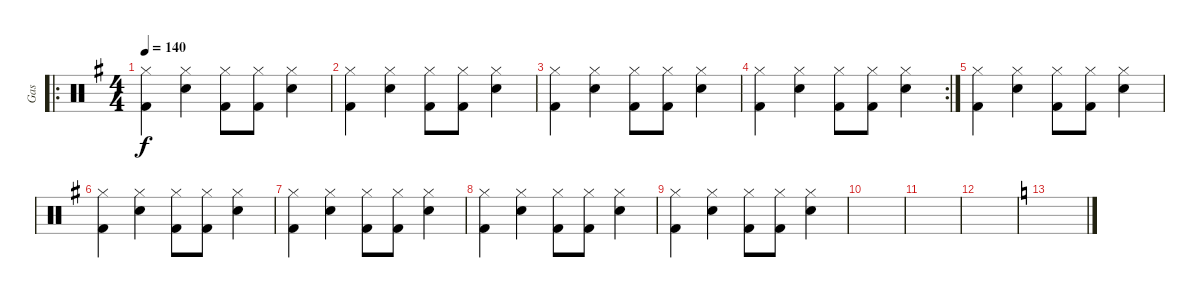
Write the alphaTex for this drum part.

\track ("Gas" "Gas") {instrument percussion}
\staff {score}
\articulation defaults
\ro
\ts (4 4)
\tempo 140
\clef neutral
\ks eminor
("Hi-Hat (closed)" "Kick (hit) 2").4{dy f} ("Hi-Hat (closed)" "Electric Snare (hit)").4 ("Hi-Hat (closed)" "Kick (hit) 2").8 ("Hi-Hat (closed)" "Kick (hit) 2").8 ("Hi-Hat (closed)" "Electric Snare (hit)").4 |
("Hi-Hat (closed)" "Kick (hit) 2").4 ("Hi-Hat (closed)" "Electric Snare (hit)").4 ("Hi-Hat (closed)" "Kick (hit) 2").8 ("Hi-Hat (closed)" "Kick (hit) 2").8 ("Hi-Hat (closed)" "Electric Snare (hit)").4 |
("Hi-Hat (closed)" "Kick (hit) 2").4 ("Hi-Hat (closed)" "Electric Snare (hit)").4 ("Hi-Hat (closed)" "Kick (hit) 2").8 ("Hi-Hat (closed)" "Kick (hit) 2").8 ("Hi-Hat (closed)" "Electric Snare (hit)").4 |
\rc 2
("Hi-Hat (closed)" "Kick (hit) 2").4 ("Hi-Hat (closed)" "Electric Snare (hit)").4 ("Hi-Hat (closed)" "Kick (hit) 2").8 ("Hi-Hat (closed)" "Kick (hit) 2").8 ("Hi-Hat (closed)" "Electric Snare (hit)").4 |
("Hi-Hat (closed)" "Kick (hit) 2").4 ("Hi-Hat (closed)" "Electric Snare (hit)").4 ("Hi-Hat (closed)" "Kick (hit) 2").8 ("Hi-Hat (closed)" "Kick (hit) 2").8 ("Hi-Hat (closed)" "Electric Snare (hit)").4 |
("Hi-Hat (closed)" "Kick (hit) 2").4 ("Hi-Hat (closed)" "Electric Snare (hit)").4 ("Hi-Hat (closed)" "Kick (hit) 2").8 ("Hi-Hat (closed)" "Kick (hit) 2").8 ("Hi-Hat (closed)" "Electric Snare (hit)").4 |
("Hi-Hat (closed)" "Kick (hit) 2").4 ("Hi-Hat (closed)" "Electric Snare (hit)").4 ("Hi-Hat (closed)" "Kick (hit) 2").8 ("Hi-Hat (closed)" "Kick (hit) 2").8 ("Hi-Hat (closed)" "Electric Snare (hit)").4 |
("Hi-Hat (closed)" "Kick (hit) 2").4 ("Hi-Hat (closed)" "Electric Snare (hit)").4 ("Hi-Hat (closed)" "Kick (hit) 2").8 ("Hi-Hat (closed)" "Kick (hit) 2").8 ("Hi-Hat (closed)" "Electric Snare (hit)").4 |
("Hi-Hat (closed)" "Kick (hit) 2").4 ("Hi-Hat (closed)" "Electric Snare (hit)").4 ("Hi-Hat (closed)" "Kick (hit) 2").8 ("Hi-Hat (closed)" "Kick (hit) 2").8 ("Hi-Hat (closed)" "Electric Snare (hit)").4 |
|
|
|
\ks c
